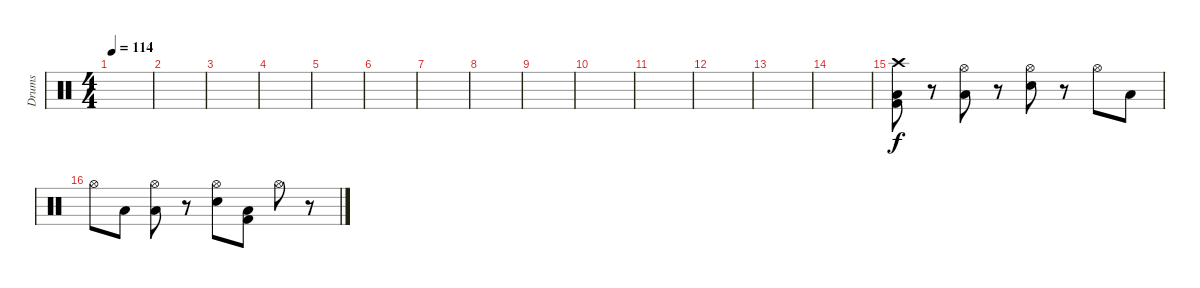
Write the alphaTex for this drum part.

\track ("Drums" "Drums") {instrument percussion}
\staff {score}
\articulation defaults
\ts (4 4)
\tempo 114
\clef neutral
\ks c
|
|
|
|
|
|
|
|
|
|
|
|
|
|
("Crash high (hit)" "Kick (hit) 2" "Low Floor Tom (hit)").8{dy f} r.8 ("Hi-Hat (open)" "Low Floor Tom (hit)").8 r.8 ("Hi-Hat (open)" "Snare (hit) 2").8 r.8 "Hi-Hat (open)".8 "Low Floor Tom (hit)".8 |
"Hi-Hat (open)".8 "Low Floor Tom (hit)".8 ("Hi-Hat (open)" "Low Floor Tom (hit)").8 r.8 ("Hi-Hat (open)" "Snare (hit) 2").8 ("Kick (hit) 2" "Low Floor Tom (hit)").8 "Hi-Hat (open)".8 r.8
